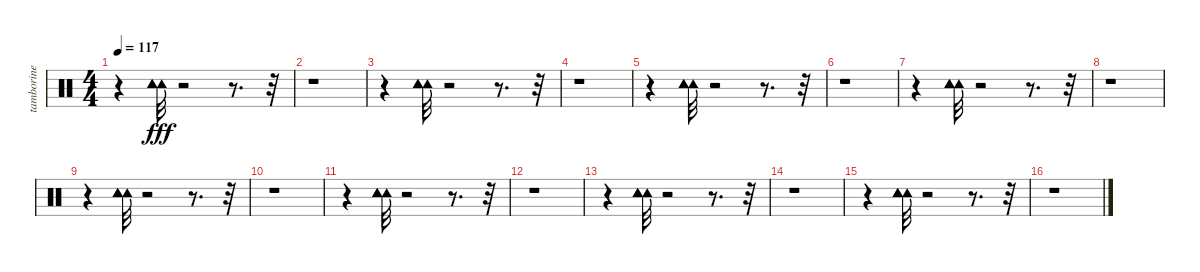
\track ("tamborine" "tamborine") {instrument percussion}
\staff {score}
\articulation defaults
\ts (4 4)
\tempo 117
\clef neutral
\ks c
r.4{dy fff} ("Tambourine (hit)" "Tambourine (hit)" "Tambourine (hit)" "Tambourine (hit)").32 r.2 r.8{d} r.32 |
r.1 |
r.4 ("Tambourine (hit)" "Tambourine (hit)" "Tambourine (hit)" "Tambourine (hit)").32 r.2 r.8{d} r.32 |
r.1 |
r.4 ("Tambourine (hit)" "Tambourine (hit)" "Tambourine (hit)" "Tambourine (hit)").32 r.2 r.8{d} r.32 |
r.1 |
r.4 ("Tambourine (hit)" "Tambourine (hit)" "Tambourine (hit)" "Tambourine (hit)").32 r.2 r.8{d} r.32 |
r.1 |
r.4 ("Tambourine (hit)" "Tambourine (hit)" "Tambourine (hit)" "Tambourine (hit)").32 r.2 r.8{d} r.32 |
r.1 |
r.4 ("Tambourine (hit)" "Tambourine (hit)" "Tambourine (hit)" "Tambourine (hit)").32 r.2 r.8{d} r.32 |
r.1 |
r.4 ("Tambourine (hit)" "Tambourine (hit)" "Tambourine (hit)" "Tambourine (hit)").32 r.2 r.8{d} r.32 |
r.1 |
r.4 ("Tambourine (hit)" "Tambourine (hit)" "Tambourine (hit)" "Tambourine (hit)").32 r.2 r.8{d} r.32 |
r.1
